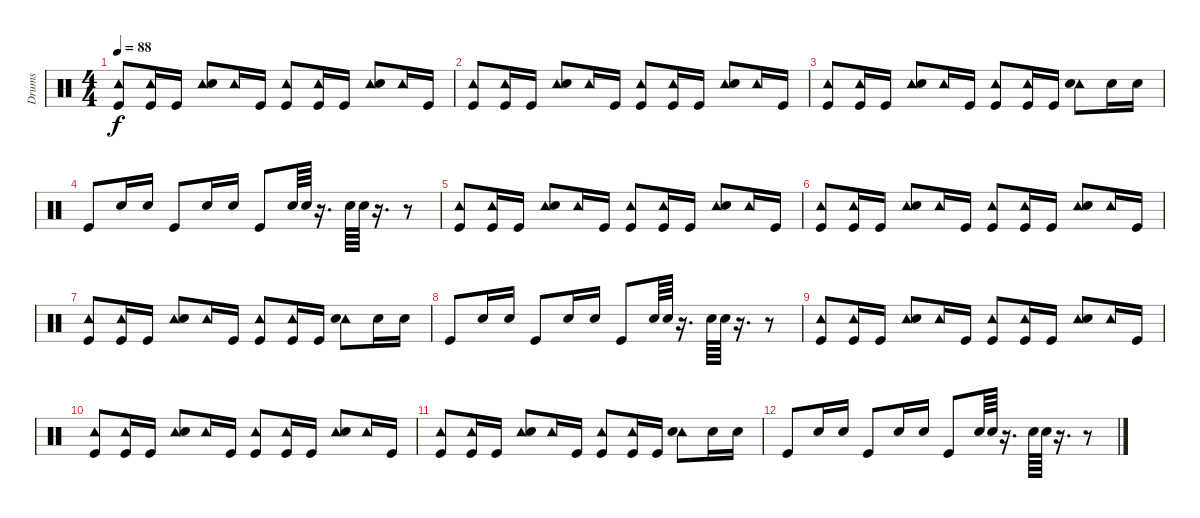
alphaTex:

\track ("Drums" "Drums") {instrument percussion}
\staff {score}
\articulation defaults
\ts (4 4)
\tempo 88
\clef neutral
\ks c
("Tambourine (hit)" "Kick (hit)").8{dy f} ("Tambourine (hit)" "Kick (hit)").16 "Kick (hit)".16 ("Tambourine (hit)" "Snare (hit) 2").8 "Tambourine (hit)".16 "Kick (hit)".16 ("Tambourine (hit)" "Kick (hit)").8 ("Tambourine (hit)" "Kick (hit)").16 "Kick (hit)".16 ("Tambourine (hit)" "Snare (hit) 2").8 "Tambourine (hit)".16 "Kick (hit)".16 |
("Tambourine (hit)" "Kick (hit)").8 ("Tambourine (hit)" "Kick (hit)").16 "Kick (hit)".16 ("Tambourine (hit)" "Snare (hit) 2").8 "Tambourine (hit)".16 "Kick (hit)".16 ("Tambourine (hit)" "Kick (hit)").8 ("Tambourine (hit)" "Kick (hit)").16 "Kick (hit)".16 ("Tambourine (hit)" "Snare (hit) 2").8 "Tambourine (hit)".16 "Kick (hit)".16 |
("Tambourine (hit)" "Kick (hit)").8 ("Tambourine (hit)" "Kick (hit)").16 "Kick (hit)".16 ("Tambourine (hit)" "Snare (hit) 2").8 "Tambourine (hit)".16 "Kick (hit)".16 ("Tambourine (hit)" "Kick (hit)").8 ("Tambourine (hit)" "Kick (hit)").16 "Kick (hit)".16 ("Tambourine (hit)" "Snare (hit) 2").8 "Snare (hit) 2".16 "Snare (hit) 2".16 |
"Kick (hit)".8 "Snare (hit) 2".16 "Snare (hit) 2".16 "Kick (hit)".8 "Snare (hit) 2".16 "Snare (hit) 2".16 "Kick (hit)".8 "Snare (hit) 2".64 "Snare (hit) 2".64 r.16{d} "Snare (hit) 2".64 "Snare (hit) 2".64 r.16{d} r.8 |
("Tambourine (hit)" "Kick (hit)").8 ("Tambourine (hit)" "Kick (hit)").16 "Kick (hit)".16 ("Tambourine (hit)" "Snare (hit) 2").8 "Tambourine (hit)".16 "Kick (hit)".16 ("Tambourine (hit)" "Kick (hit)").8 ("Tambourine (hit)" "Kick (hit)").16 "Kick (hit)".16 ("Tambourine (hit)" "Snare (hit) 2").8 "Tambourine (hit)".16 "Kick (hit)".16 |
("Tambourine (hit)" "Kick (hit)").8 ("Tambourine (hit)" "Kick (hit)").16 "Kick (hit)".16 ("Tambourine (hit)" "Snare (hit) 2").8 "Tambourine (hit)".16 "Kick (hit)".16 ("Tambourine (hit)" "Kick (hit)").8 ("Tambourine (hit)" "Kick (hit)").16 "Kick (hit)".16 ("Tambourine (hit)" "Snare (hit) 2").8 "Tambourine (hit)".16 "Kick (hit)".16 |
("Tambourine (hit)" "Kick (hit)").8 ("Tambourine (hit)" "Kick (hit)").16 "Kick (hit)".16 ("Tambourine (hit)" "Snare (hit) 2").8 "Tambourine (hit)".16 "Kick (hit)".16 ("Tambourine (hit)" "Kick (hit)").8 ("Tambourine (hit)" "Kick (hit)").16 "Kick (hit)".16 ("Tambourine (hit)" "Snare (hit) 2").8 "Snare (hit) 2".16 "Snare (hit) 2".16 |
"Kick (hit)".8 "Snare (hit) 2".16 "Snare (hit) 2".16 "Kick (hit)".8 "Snare (hit) 2".16 "Snare (hit) 2".16 "Kick (hit)".8 "Snare (hit) 2".64 "Snare (hit) 2".64 r.16{d} "Snare (hit) 2".64 "Snare (hit) 2".64 r.16{d} r.8 |
("Tambourine (hit)" "Kick (hit)").8 ("Tambourine (hit)" "Kick (hit)").16 "Kick (hit)".16 ("Tambourine (hit)" "Snare (hit) 2").8 "Tambourine (hit)".16 "Kick (hit)".16 ("Tambourine (hit)" "Kick (hit)").8 ("Tambourine (hit)" "Kick (hit)").16 "Kick (hit)".16 ("Tambourine (hit)" "Snare (hit) 2").8 "Tambourine (hit)".16 "Kick (hit)".16 |
("Tambourine (hit)" "Kick (hit)").8 ("Tambourine (hit)" "Kick (hit)").16 "Kick (hit)".16 ("Tambourine (hit)" "Snare (hit) 2").8 "Tambourine (hit)".16 "Kick (hit)".16 ("Tambourine (hit)" "Kick (hit)").8 ("Tambourine (hit)" "Kick (hit)").16 "Kick (hit)".16 ("Tambourine (hit)" "Snare (hit) 2").8 "Tambourine (hit)".16 "Kick (hit)".16 |
("Tambourine (hit)" "Kick (hit)").8 ("Tambourine (hit)" "Kick (hit)").16 "Kick (hit)".16 ("Tambourine (hit)" "Snare (hit) 2").8 "Tambourine (hit)".16 "Kick (hit)".16 ("Tambourine (hit)" "Kick (hit)").8 ("Tambourine (hit)" "Kick (hit)").16 "Kick (hit)".16 ("Tambourine (hit)" "Snare (hit) 2").8 "Snare (hit) 2".16 "Snare (hit) 2".16 |
"Kick (hit)".8 "Snare (hit) 2".16 "Snare (hit) 2".16 "Kick (hit)".8 "Snare (hit) 2".16 "Snare (hit) 2".16 "Kick (hit)".8 "Snare (hit) 2".64 "Snare (hit) 2".64 r.16{d} "Snare (hit) 2".64 "Snare (hit) 2".64 r.16{d} r.8
